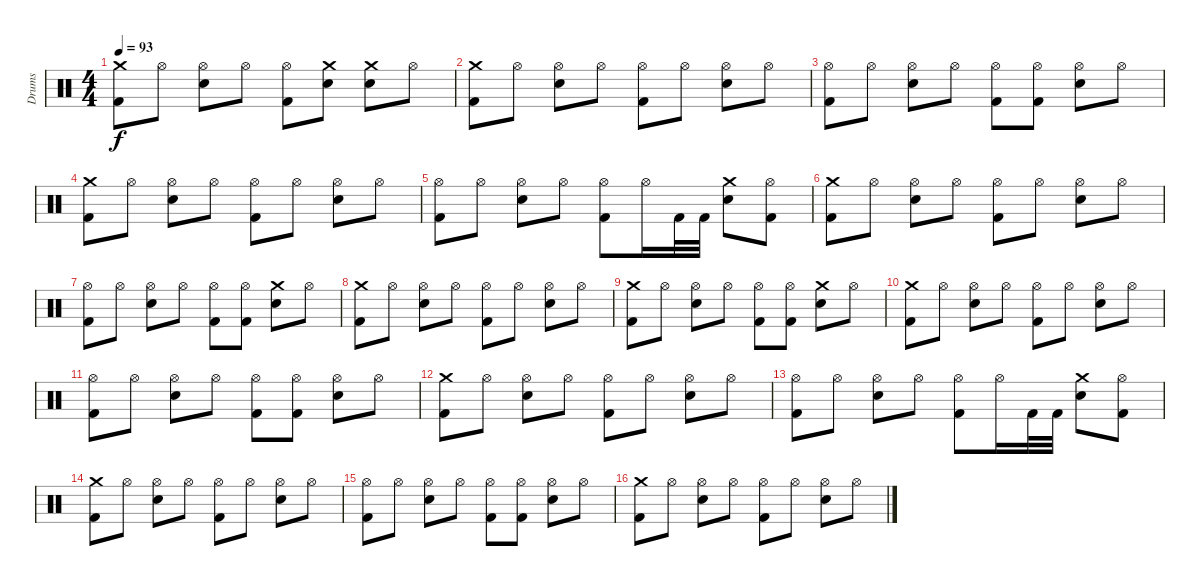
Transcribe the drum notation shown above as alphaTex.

\track ("Drums" "Drums") {instrument percussion}
\staff {score}
\articulation defaults
\ts (4 4)
\tempo 93
\clef neutral
\ks c
("Crash medium (hit)" "Kick (hit) 2").8{dy f} "Hi-Hat (open)".8 ("Hi-Hat (open)" "Electric Snare (hit)").8 "Hi-Hat (open)".8 ("Hi-Hat (open)" "Kick (hit) 2").8 ("Crash medium (hit)" "Electric Snare (hit)").8 ("Crash medium (hit)" "Electric Snare (hit)").8 "Hi-Hat (open)".8 |
("Crash medium (hit)" "Kick (hit) 2").8 "Hi-Hat (open)".8 ("Hi-Hat (open)" "Electric Snare (hit)").8 "Hi-Hat (open)".8 ("Hi-Hat (open)" "Kick (hit) 2").8 "Hi-Hat (open)".8 ("Hi-Hat (open)" "Electric Snare (hit)").8 "Hi-Hat (open)".8 |
("Hi-Hat (open)" "Kick (hit) 2").8 "Hi-Hat (open)".8 ("Hi-Hat (open)" "Electric Snare (hit)").8 "Hi-Hat (open)".8 ("Hi-Hat (open)" "Kick (hit) 2").8 ("Hi-Hat (open)" "Kick (hit) 2").8 ("Hi-Hat (open)" "Electric Snare (hit)").8 "Hi-Hat (open)".8 |
("Crash medium (hit)" "Kick (hit) 2").8 "Hi-Hat (open)".8 ("Hi-Hat (open)" "Electric Snare (hit)").8 "Hi-Hat (open)".8 ("Hi-Hat (open)" "Kick (hit) 2").8 "Hi-Hat (open)".8 ("Hi-Hat (open)" "Electric Snare (hit)").8 "Hi-Hat (open)".8 |
("Hi-Hat (open)" "Kick (hit) 2").8 "Hi-Hat (open)".8 ("Hi-Hat (open)" "Electric Snare (hit)").8 "Hi-Hat (open)".8 ("Hi-Hat (open)" "Kick (hit) 2").8 "Hi-Hat (open)".16 "Kick (hit) 2".32 "Kick (hit) 2".32 ("Crash medium (hit)" "Electric Snare (hit)").8 ("Hi-Hat (open)" "Kick (hit) 2").8 |
("Crash medium (hit)" "Kick (hit) 2").8 "Hi-Hat (open)".8 ("Hi-Hat (open)" "Electric Snare (hit)").8 "Hi-Hat (open)".8 ("Hi-Hat (open)" "Kick (hit) 2").8 "Hi-Hat (open)".8 ("Hi-Hat (open)" "Electric Snare (hit)").8 "Hi-Hat (open)".8 |
("Hi-Hat (open)" "Kick (hit) 2").8 "Hi-Hat (open)".8 ("Hi-Hat (open)" "Electric Snare (hit)").8 "Hi-Hat (open)".8 ("Hi-Hat (open)" "Kick (hit) 2").8 ("Hi-Hat (open)" "Kick (hit) 2").8 ("Crash medium (hit)" "Electric Snare (hit)").8 "Hi-Hat (open)".8 |
("Crash medium (hit)" "Kick (hit) 2").8 "Hi-Hat (open)".8 ("Hi-Hat (open)" "Electric Snare (hit)").8 "Hi-Hat (open)".8 ("Hi-Hat (open)" "Kick (hit) 2").8 "Hi-Hat (open)".8 ("Hi-Hat (open)" "Electric Snare (hit)").8 "Hi-Hat (open)".8 |
("Crash medium (hit)" "Kick (hit) 2").8 "Hi-Hat (open)".8 ("Hi-Hat (open)" "Electric Snare (hit)").8 "Hi-Hat (open)".8 ("Hi-Hat (open)" "Kick (hit) 2").8 ("Hi-Hat (open)" "Kick (hit) 2").8 ("Crash medium (hit)" "Electric Snare (hit)").8 "Hi-Hat (open)".8 |
("Crash medium (hit)" "Kick (hit) 2").8 "Hi-Hat (open)".8 ("Hi-Hat (open)" "Electric Snare (hit)").8 "Hi-Hat (open)".8 ("Hi-Hat (open)" "Kick (hit) 2").8 "Hi-Hat (open)".8 ("Hi-Hat (open)" "Electric Snare (hit)").8 "Hi-Hat (open)".8 |
("Hi-Hat (open)" "Kick (hit) 2").8 "Hi-Hat (open)".8 ("Hi-Hat (open)" "Electric Snare (hit)").8 "Hi-Hat (open)".8 ("Hi-Hat (open)" "Kick (hit) 2").8 ("Hi-Hat (open)" "Kick (hit) 2").8 ("Hi-Hat (open)" "Electric Snare (hit)").8 "Hi-Hat (open)".8 |
("Crash medium (hit)" "Kick (hit) 2").8 "Hi-Hat (open)".8 ("Hi-Hat (open)" "Electric Snare (hit)").8 "Hi-Hat (open)".8 ("Hi-Hat (open)" "Kick (hit) 2").8 "Hi-Hat (open)".8 ("Hi-Hat (open)" "Electric Snare (hit)").8 "Hi-Hat (open)".8 |
("Hi-Hat (open)" "Kick (hit) 2").8 "Hi-Hat (open)".8 ("Hi-Hat (open)" "Electric Snare (hit)").8 "Hi-Hat (open)".8 ("Hi-Hat (open)" "Kick (hit) 2").8 "Hi-Hat (open)".16 "Kick (hit) 2".32 "Kick (hit) 2".32 ("Crash medium (hit)" "Electric Snare (hit)").8 ("Hi-Hat (open)" "Kick (hit) 2").8 |
("Crash medium (hit)" "Kick (hit) 2").8 "Hi-Hat (open)".8 ("Hi-Hat (open)" "Electric Snare (hit)").8 "Hi-Hat (open)".8 ("Hi-Hat (open)" "Kick (hit) 2").8 "Hi-Hat (open)".8 ("Hi-Hat (open)" "Electric Snare (hit)").8 "Hi-Hat (open)".8 |
("Hi-Hat (open)" "Kick (hit) 2").8 "Hi-Hat (open)".8 ("Hi-Hat (open)" "Electric Snare (hit)").8 "Hi-Hat (open)".8 ("Hi-Hat (open)" "Kick (hit) 2").8 ("Hi-Hat (open)" "Kick (hit) 2").8 ("Hi-Hat (open)" "Electric Snare (hit)").8 "Hi-Hat (open)".8 |
("Crash medium (hit)" "Kick (hit) 2").8 "Hi-Hat (open)".8 ("Hi-Hat (open)" "Electric Snare (hit)").8 "Hi-Hat (open)".8 ("Hi-Hat (open)" "Kick (hit) 2").8 "Hi-Hat (open)".8 ("Hi-Hat (open)" "Electric Snare (hit)").8 "Hi-Hat (open)".8
